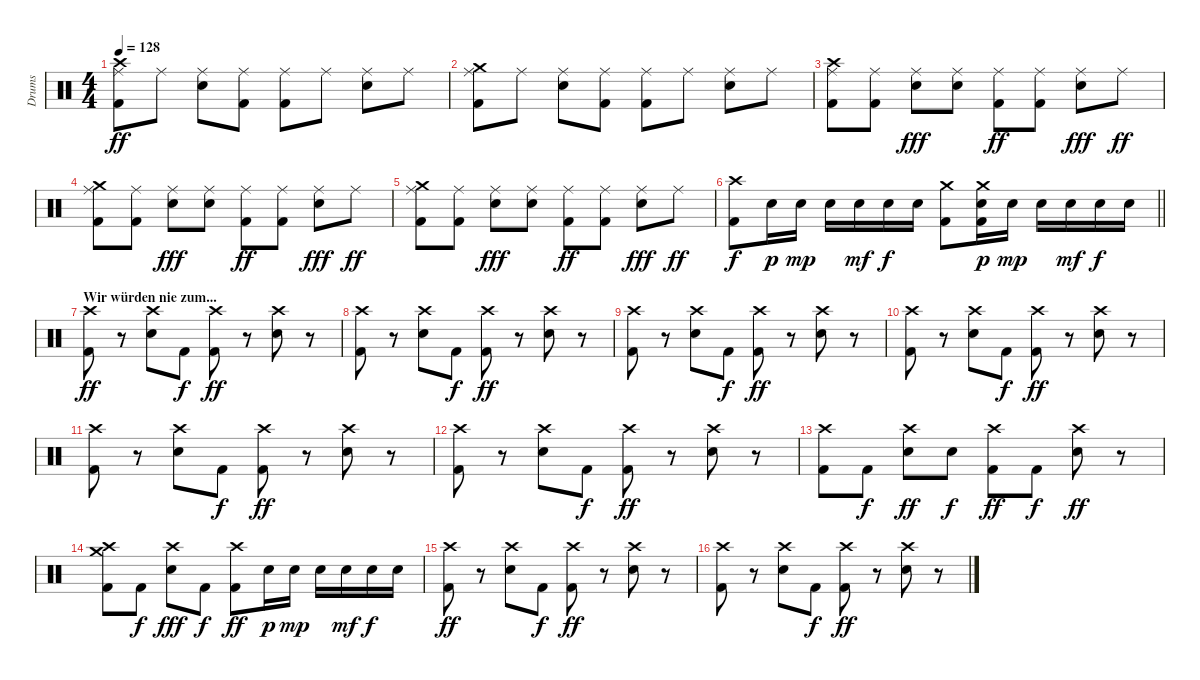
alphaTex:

\track ("Drums" "Drums") {instrument percussion}
\staff {score}
\articulation defaults
\ts (4 4)
\tempo 128
\clef neutral
\ks c
("Ride (middle)" "Kick (hit) 2" "Crash high (hit)").8{dy ff} "Ride (middle)".8 ("Ride (middle)" "Snare (hit) 2").8 ("Ride (middle)" "Kick (hit) 2").8 ("Ride (middle)" "Kick (hit) 2").8 "Ride (middle)".8 ("Ride (middle)" "Snare (hit) 2").8 "Ride (middle)".8 |
("Ride (middle)" "Kick (hit) 2" "Crash medium (hit)").8 "Ride (middle)".8 ("Ride (middle)" "Snare (hit) 2").8 ("Ride (middle)" "Kick (hit) 2").8 ("Ride (middle)" "Kick (hit) 2").8 "Ride (middle)".8 ("Ride (middle)" "Snare (hit) 2").8 "Ride (middle)".8 |
("Ride (middle)" "Kick (hit) 2" "Crash high (hit)").8 ("Ride (middle)" "Kick (hit) 2").8 ("Ride (middle)" "Snare (hit) 2").8{dy fff} ("Ride (middle)" "Snare (hit) 2").8 ("Ride (middle)" "Kick (hit) 2").8{dy ff} ("Ride (middle)" "Kick (hit) 2").8 ("Ride (middle)" "Snare (hit) 2").8{dy fff} "Ride (middle)".8{dy ff} |
("Ride (middle)" "Kick (hit) 2" "Crash medium (hit)").8 ("Ride (middle)" "Kick (hit) 2").8 ("Ride (middle)" "Snare (hit) 2").8{dy fff} ("Ride (middle)" "Snare (hit) 2").8 ("Ride (middle)" "Kick (hit) 2").8{dy ff} ("Ride (middle)" "Kick (hit) 2").8 ("Ride (middle)" "Snare (hit) 2").8{dy fff} "Ride (middle)".8{dy ff} |
("Ride (middle)" "Kick (hit) 2" "Crash medium (hit)").8 ("Ride (middle)" "Kick (hit) 2").8 ("Ride (middle)" "Snare (hit) 2").8{dy fff} ("Ride (middle)" "Snare (hit) 2").8 ("Ride (middle)" "Kick (hit) 2").8{dy ff} ("Ride (middle)" "Kick (hit) 2").8 ("Ride (middle)" "Snare (hit) 2").8{dy fff} "Ride (middle)".8{dy ff} |
\barLineRight lightlight
("Kick (hit) 2" "Crash high (hit)").8{dy f} "Snare (hit) 2".16{dy p} "Snare (hit) 2".16{dy mp} "Snare (hit) 2".16 "Snare (hit) 2".16{dy mf} "Snare (hit) 2".16{dy f} "Snare (hit) 2".16 ("Kick (hit) 2" "Crash medium (hit)").8 ("Kick (hit) 2" "Snare (hit) 2" "Crash medium (hit)").16{dy p} "Snare (hit) 2".16{dy mp} "Snare (hit) 2".16 "Snare (hit) 2".16{dy mf} "Snare (hit) 2".16{dy f} "Snare (hit) 2".16 |
\section ("" "Wir würden nie zum...")
("Crash high (hit)" "Kick (hit) 2").8{dy ff} r.8 ("Crash high (hit)" "Snare (hit) 2").8 "Kick (hit) 2".8{dy f} ("Crash high (hit)" "Kick (hit) 2").8{dy ff} r.8 ("Crash high (hit)" "Snare (hit) 2").8 r.8 |
("Crash high (hit)" "Kick (hit) 2").8 r.8 ("Crash high (hit)" "Snare (hit) 2").8 "Kick (hit) 2".8{dy f} ("Crash high (hit)" "Kick (hit) 2").8{dy ff} r.8 ("Crash high (hit)" "Snare (hit) 2").8 r.8 |
("Crash high (hit)" "Kick (hit) 2").8 r.8 ("Crash high (hit)" "Snare (hit) 2").8 "Kick (hit) 2".8{dy f} ("Crash high (hit)" "Kick (hit) 2").8{dy ff} r.8 ("Crash high (hit)" "Snare (hit) 2").8 r.8 |
("Crash high (hit)" "Kick (hit) 2").8 r.8 ("Crash high (hit)" "Snare (hit) 2").8 "Kick (hit) 2".8{dy f} ("Crash high (hit)" "Kick (hit) 2").8{dy ff} r.8 ("Crash high (hit)" "Snare (hit) 2").8 r.8 |
("Crash high (hit)" "Kick (hit) 2").8 r.8 ("Crash high (hit)" "Snare (hit) 2").8 "Kick (hit) 2".8{dy f} ("Crash high (hit)" "Kick (hit) 2").8{dy ff} r.8 ("Crash high (hit)" "Snare (hit) 2").8 r.8 |
("Crash high (hit)" "Kick (hit) 2").8 r.8 ("Crash high (hit)" "Snare (hit) 2").8 "Kick (hit) 2".8{dy f} ("Crash high (hit)" "Kick (hit) 2").8{dy ff} r.8 ("Crash high (hit)" "Snare (hit) 2").8 r.8 |
("Crash high (hit)" "Kick (hit) 2").8 "Kick (hit) 2".8{dy f} ("Crash high (hit)" "Snare (hit) 2").8{dy ff} "Snare (hit) 2".8{dy f} ("Crash high (hit)" "Kick (hit) 2").8{dy ff} "Kick (hit) 2".8{dy f} ("Crash high (hit)" "Snare (hit) 2").8{dy ff} r.8 |
("Crash high (hit)" "Kick (hit) 2" "Crash medium (hit)").8 "Kick (hit) 2".8{dy f} ("Crash high (hit)" "Snare (hit) 2").8{dy fff} "Kick (hit) 2".8{dy f} ("Crash high (hit)" "Kick (hit) 2").8{dy ff} "Snare (hit) 2".16{dy p} "Snare (hit) 2".16{dy mp} "Snare (hit) 2".16 "Snare (hit) 2".16{dy mf} "Snare (hit) 2".16{dy f} "Snare (hit) 2".16 |
("Crash high (hit)" "Kick (hit) 2").8{dy ff} r.8 ("Crash high (hit)" "Snare (hit) 2").8 "Kick (hit) 2".8{dy f} ("Crash high (hit)" "Kick (hit) 2").8{dy ff} r.8 ("Crash high (hit)" "Snare (hit) 2").8 r.8 |
("Crash high (hit)" "Kick (hit) 2").8 r.8 ("Crash high (hit)" "Snare (hit) 2").8 "Kick (hit) 2".8{dy f} ("Crash high (hit)" "Kick (hit) 2").8{dy ff} r.8 ("Crash high (hit)" "Snare (hit) 2").8 r.8
